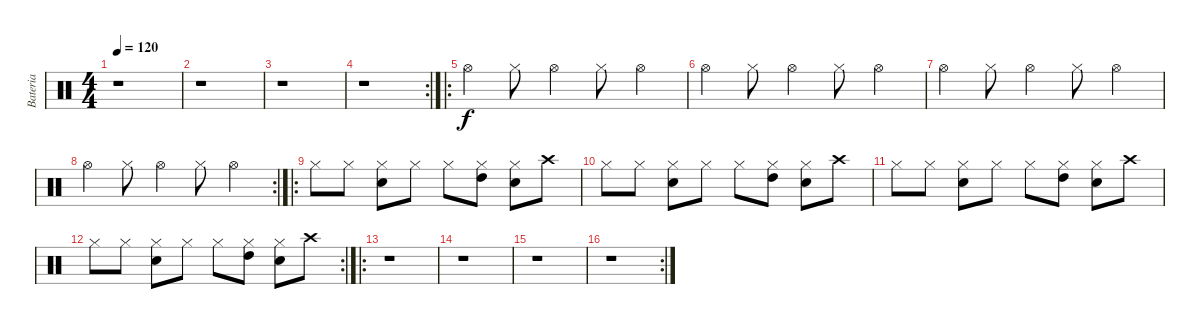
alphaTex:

\track ("Bateria" "Bateria") {instrument percussion}
\staff {score}
\articulation defaults
\ts (4 4)
\tempo 120
\clef neutral
\ks c
r.1{dy f} |
\section ("" "")
r.1 |
r.1 |
\rc 2
r.1 |
\ro "Hi-Hat (open)".4 "Hi-Hat (closed)".8 "Hi-Hat (open)".4 "Hi-Hat (closed)".8 "Hi-Hat (open)".4
|
\section ("" "")
"Hi-Hat (open)".4 "Hi-Hat (closed)".8 "Hi-Hat (open)".4 "Hi-Hat (closed)".8 "Hi-Hat (open)".4 |
"Hi-Hat (open)".4 "Hi-Hat (closed)".8 "Hi-Hat (open)".4 "Hi-Hat (closed)".8 "Hi-Hat (open)".4 |
\rc 2 "Hi-Hat (open)".4 "Hi-Hat (closed)".8 "Hi-Hat (open)".4 "Hi-Hat (closed)".8 "Hi-Hat (open)".4
|
\ro
\section ("" "")
"Hi-Hat (closed)".8 "Hi-Hat (closed)".8 ("Hi-Hat (closed)" "Snare (hit) 2").8 "Hi-Hat (closed)".8 "Hi-Hat (closed)".8 ("Hi-Hat (closed)" "High Tom (hit)").8 ("Hi-Hat (closed)" "Snare (hit) 2").8 "Crash high (hit)".8 |
"Hi-Hat (closed)".8 "Hi-Hat (closed)".8 ("Hi-Hat (closed)" "Snare (hit) 2").8 "Hi-Hat (closed)".8 "Hi-Hat (closed)".8 ("Hi-Hat (closed)" "High Tom (hit)").8 ("Hi-Hat (closed)" "Snare (hit) 2").8 "Crash high (hit)".8 |
"Hi-Hat (closed)".8 "Hi-Hat (closed)".8 ("Hi-Hat (closed)" "Snare (hit) 2").8 "Hi-Hat (closed)".8 "Hi-Hat (closed)".8 ("Hi-Hat (closed)" "High Tom (hit)").8 ("Hi-Hat (closed)" "Snare (hit) 2").8 "Crash high (hit)".8 |
\rc 2 "Hi-Hat (closed)".8 "Hi-Hat (closed)".8
("Hi-Hat (closed)" "Snare (hit) 2").8 "Hi-Hat (closed)".8 "Hi-Hat (closed)".8 ("Hi-Hat (closed)" "High Tom (hit)").8 ("Hi-Hat (closed)" "Snare (hit) 2").8 "Crash high (hit)".8 |
\ro
\section ("" "")
r.1 |
\section ("" "")
r.1 |
r.1 |
\rc 2
r.1
